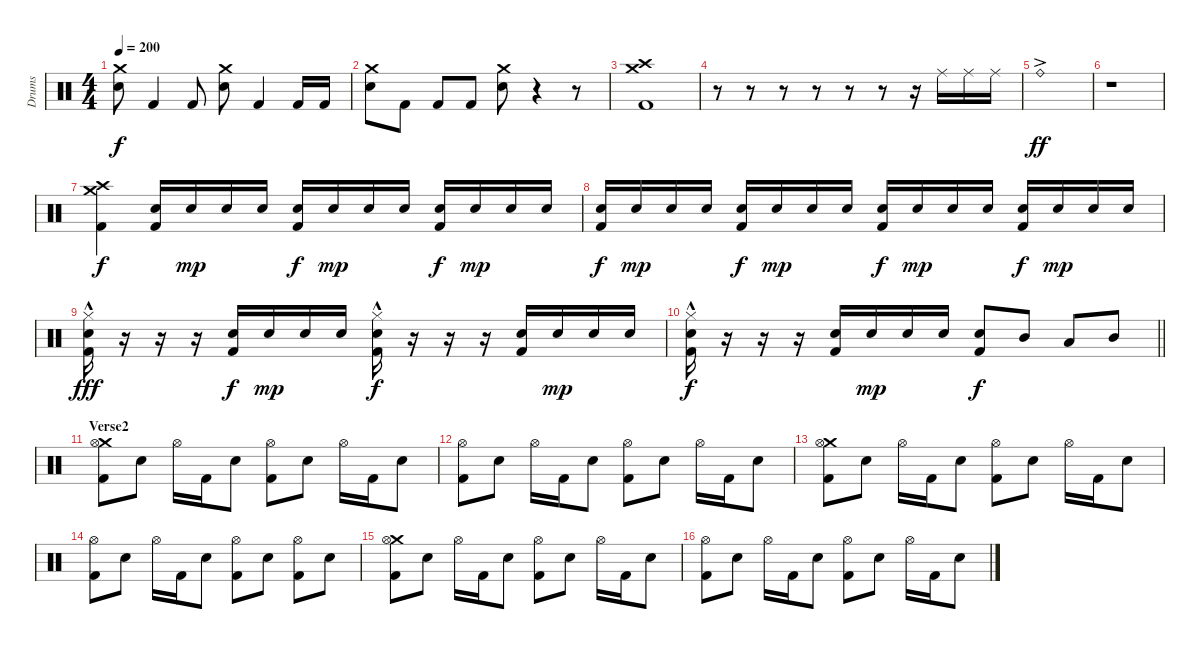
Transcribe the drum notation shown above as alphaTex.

\track ("Drums" "Drums") {instrument percussion}
\staff {score}
\articulation defaults
\ts (4 4)
\tempo 200
\clef neutral
\ks c
("Crash medium (hit)" "Electric Snare (hit)").8{dy f} "Kick (hit) 2".4 "Kick (hit) 2".8 ("Crash medium (hit)" "Electric Snare (hit)").8 "Kick (hit) 2".4 "Kick (hit) 2".16 "Kick (hit) 2".16 |
("Crash medium (hit)" "Electric Snare (hit)").8 "Kick (hit) 2".8 "Kick (hit) 2".8 "Kick (hit) 2".8 ("Crash medium (hit)" "Electric Snare (hit)").8 r.4 r.8 |
("Crash medium (hit)" "Crash high (hit)" "Kick (hit) 2").1 |
r.8 r.8 r.8 r.8 r.8 r.8 r.16 "Ride (middle)".16 "Ride (middle)".16 "Ride (middle)".16 |
"Ride (bell)"{ac}.1{dy ff} |
r.1 |
("Crash medium (hit)" "Crash high (hit)" "Kick (hit) 2").4{dy f} ("Electric Snare (hit)" "Kick (hit) 2").16 "Electric Snare (hit)".16{dy mp} "Electric Snare (hit)".16 "Electric Snare (hit)".16 ("Electric Snare (hit)" "Kick (hit) 2").16{dy f} "Electric Snare (hit)".16{dy mp} "Electric Snare (hit)".16 "Electric Snare (hit)".16 ("Electric Snare (hit)" "Kick (hit) 2").16{dy f} "Electric Snare (hit)".16{dy mp} "Electric Snare (hit)".16 "Electric Snare (hit)".16 |
("Electric Snare (hit)" "Kick (hit) 2").16{dy f} "Electric Snare (hit)".16{dy mp} "Electric Snare (hit)".16 "Electric Snare (hit)".16 ("Electric Snare (hit)" "Kick (hit) 2").16{dy f} "Electric Snare (hit)".16{dy mp} "Electric Snare (hit)".16 "Electric Snare (hit)".16 ("Electric Snare (hit)" "Kick (hit) 2").16{dy f} "Electric Snare (hit)".16{dy mp} "Electric Snare (hit)".16 "Electric Snare (hit)".16 ("Electric Snare (hit)" "Kick (hit) 2").16{dy f} "Electric Snare (hit)".16{dy mp} "Electric Snare (hit)".16 "Electric Snare (hit)".16 |
("Hi-Hat (closed)"{hac} "Electric Snare (hit)" "Kick (hit) 2").16{dy fff} r.16 r.16 r.16 ("Electric Snare (hit)" "Kick (hit) 2").16{dy f} "Electric Snare (hit)".16{dy mp} "Electric Snare (hit)".16 "Electric Snare (hit)".16 ("Hi-Hat (closed)"{hac} "Electric Snare (hit)" "Kick (hit) 2").16{dy f} r.16 r.16 r.16 ("Electric Snare (hit)" "Kick (hit) 2").16 "Electric Snare (hit)".16{dy mp} "Electric Snare (hit)".16 "Electric Snare (hit)".16 |
\barLineRight lightlight
("Hi-Hat (closed)"{hac} "Electric Snare (hit)" "Kick (hit) 2").16{dy f} r.16 r.16 r.16 ("Electric Snare (hit)" "Kick (hit) 2").16 "Electric Snare (hit)".16{dy mp} "Electric Snare (hit)".16 "Electric Snare (hit)".16 ("Electric Snare (hit)" "Kick (hit) 2").8{dy f} "Mid Tom (hit)".8 "Low Tom (hit)".8 "Mid Tom (hit)".8 |
\section ("" "Verse2")
("Crash medium (hit)" "Hi-Hat (open)" "Kick (hit) 2").8 "Electric Snare (hit)".8 "Hi-Hat (open)".16 "Kick (hit) 2".16 "Electric Snare (hit)".8 ("Hi-Hat (open)" "Kick (hit) 2").8 "Electric Snare (hit)".8 "Hi-Hat (open)".16 "Kick (hit) 2".16 "Electric Snare (hit)".8 |
("Hi-Hat (open)" "Kick (hit) 2").8 "Electric Snare (hit)".8 "Hi-Hat (open)".16 "Kick (hit) 2".16 "Electric Snare (hit)".8 ("Hi-Hat (open)" "Kick (hit) 2").8 "Electric Snare (hit)".8 "Hi-Hat (open)".16 "Kick (hit) 2".16 "Electric Snare (hit)".8 |
("Crash medium (hit)" "Hi-Hat (open)" "Kick (hit) 2").8 "Electric Snare (hit)".8 "Hi-Hat (open)".16 "Kick (hit) 2".16 "Electric Snare (hit)".8 ("Hi-Hat (open)" "Kick (hit) 2").8 "Electric Snare (hit)".8 "Hi-Hat (open)".16 "Kick (hit) 2".16 "Electric Snare (hit)".8 |
("Hi-Hat (open)" "Kick (hit) 2").8 "Electric Snare (hit)".8 "Hi-Hat (open)".16 "Kick (hit) 2".16 "Electric Snare (hit)".8 ("Hi-Hat (open)" "Kick (hit) 2").8 "Electric Snare (hit)".8 ("Hi-Hat (open)" "Kick (hit) 2").8 "Electric Snare (hit)".8 |
("Crash medium (hit)" "Hi-Hat (open)" "Kick (hit) 2").8 "Electric Snare (hit)".8 "Hi-Hat (open)".16 "Kick (hit) 2".16 "Electric Snare (hit)".8 ("Hi-Hat (open)" "Kick (hit) 2").8 "Electric Snare (hit)".8 "Hi-Hat (open)".16 "Kick (hit) 2".16 "Electric Snare (hit)".8 |
("Hi-Hat (open)" "Kick (hit) 2").8 "Electric Snare (hit)".8 "Hi-Hat (open)".16 "Kick (hit) 2".16 "Electric Snare (hit)".8 ("Hi-Hat (open)" "Kick (hit) 2").8 "Electric Snare (hit)".8 "Hi-Hat (open)".16 "Kick (hit) 2".16 "Electric Snare (hit)".8
